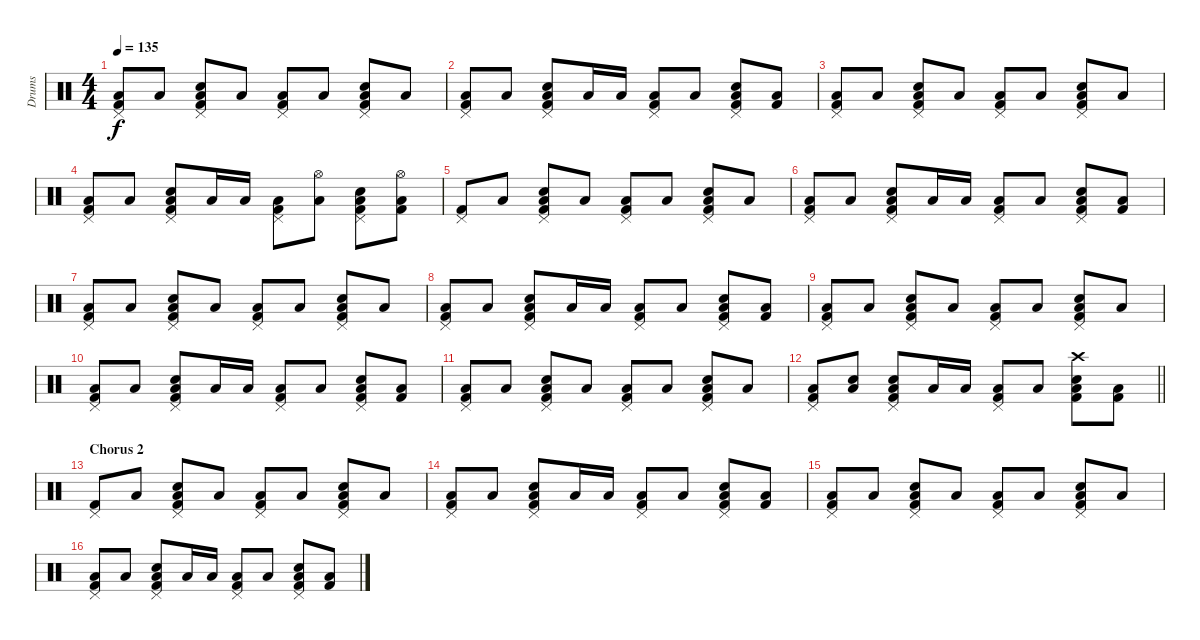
\track ("Drums" "Drums") {instrument percussion}
\staff {score}
\articulation defaults
\ts (4 4)
\tempo 135
\clef neutral
\ks c
("Pedal Hi-Hat (hit)" "Low Floor Tom (hit)" "Kick (hit) 2").8{dy f} "Low Floor Tom (hit)".8 ("Pedal Hi-Hat (hit)" "Low Floor Tom (hit)" "Electric Snare (hit)" "Kick (hit) 2").8 "Low Floor Tom (hit)".8 ("Pedal Hi-Hat (hit)" "Low Floor Tom (hit)" "Kick (hit) 2").8 "Low Floor Tom (hit)".8 ("Pedal Hi-Hat (hit)" "Low Floor Tom (hit)" "Electric Snare (hit)" "Kick (hit) 2").8 "Low Floor Tom (hit)".8 |
("Pedal Hi-Hat (hit)" "Low Floor Tom (hit)" "Kick (hit) 2").8 "Low Floor Tom (hit)".8 ("Pedal Hi-Hat (hit)" "Low Floor Tom (hit)" "Electric Snare (hit)" "Kick (hit) 2").8 "Low Floor Tom (hit)".16 "Low Floor Tom (hit)".16 ("Pedal Hi-Hat (hit)" "Low Floor Tom (hit)" "Kick (hit) 2").8 "Low Floor Tom (hit)".8 ("Pedal Hi-Hat (hit)" "Low Floor Tom (hit)" "Electric Snare (hit)" "Kick (hit) 2").8 ("Low Floor Tom (hit)" "Kick (hit) 2").8 |
("Pedal Hi-Hat (hit)" "Low Floor Tom (hit)" "Kick (hit) 2").8 "Low Floor Tom (hit)".8 ("Pedal Hi-Hat (hit)" "Low Floor Tom (hit)" "Electric Snare (hit)" "Kick (hit) 2").8 "Low Floor Tom (hit)".8 ("Pedal Hi-Hat (hit)" "Low Floor Tom (hit)" "Kick (hit) 2").8 "Low Floor Tom (hit)".8 ("Pedal Hi-Hat (hit)" "Low Floor Tom (hit)" "Electric Snare (hit)" "Kick (hit) 2").8 "Low Floor Tom (hit)".8 |
("Pedal Hi-Hat (hit)" "Low Floor Tom (hit)" "Kick (hit) 2").8 "Low Floor Tom (hit)".8 ("Pedal Hi-Hat (hit)" "Low Floor Tom (hit)" "Electric Snare (hit)" "Kick (hit) 2").8 "Low Floor Tom (hit)".16 "Low Floor Tom (hit)".16 ("Pedal Hi-Hat (hit)" "Low Floor Tom (hit)" "Kick (hit) 2").8 ("Hi-Hat (open)" "Low Floor Tom (hit)").8 ("Pedal Hi-Hat (hit)" "Low Floor Tom (hit)" "Electric Snare (hit)" "Kick (hit) 2").8 ("Hi-Hat (open)" "Low Floor Tom (hit)" "Kick (hit) 2").8 |
("Pedal Hi-Hat (hit)" "Kick (hit) 2").8 "Low Floor Tom (hit)".8 ("Pedal Hi-Hat (hit)" "Low Floor Tom (hit)" "Electric Snare (hit)" "Kick (hit) 2").8 "Low Floor Tom (hit)".8 ("Pedal Hi-Hat (hit)" "Low Floor Tom (hit)" "Kick (hit) 2").8 "Low Floor Tom (hit)".8 ("Pedal Hi-Hat (hit)" "Low Floor Tom (hit)" "Electric Snare (hit)" "Kick (hit) 2").8 "Low Floor Tom (hit)".8 |
("Pedal Hi-Hat (hit)" "Low Floor Tom (hit)" "Kick (hit) 2").8 "Low Floor Tom (hit)".8 ("Pedal Hi-Hat (hit)" "Low Floor Tom (hit)" "Electric Snare (hit)" "Kick (hit) 2").8 "Low Floor Tom (hit)".16 "Low Floor Tom (hit)".16 ("Pedal Hi-Hat (hit)" "Low Floor Tom (hit)" "Kick (hit) 2").8 "Low Floor Tom (hit)".8 ("Pedal Hi-Hat (hit)" "Low Floor Tom (hit)" "Electric Snare (hit)" "Kick (hit) 2").8 ("Low Floor Tom (hit)" "Kick (hit) 2").8 |
("Pedal Hi-Hat (hit)" "Low Floor Tom (hit)" "Kick (hit) 2").8 "Low Floor Tom (hit)".8 ("Pedal Hi-Hat (hit)" "Low Floor Tom (hit)" "Electric Snare (hit)" "Kick (hit) 2").8 "Low Floor Tom (hit)".8 ("Pedal Hi-Hat (hit)" "Low Floor Tom (hit)" "Kick (hit) 2").8 "Low Floor Tom (hit)".8 ("Pedal Hi-Hat (hit)" "Low Floor Tom (hit)" "Electric Snare (hit)" "Kick (hit) 2").8 "Low Floor Tom (hit)".8 |
("Pedal Hi-Hat (hit)" "Low Floor Tom (hit)" "Kick (hit) 2").8 "Low Floor Tom (hit)".8 ("Pedal Hi-Hat (hit)" "Low Floor Tom (hit)" "Electric Snare (hit)" "Kick (hit) 2").8 "Low Floor Tom (hit)".16 "Low Floor Tom (hit)".16 ("Pedal Hi-Hat (hit)" "Low Floor Tom (hit)" "Kick (hit) 2").8 "Low Floor Tom (hit)".8 ("Pedal Hi-Hat (hit)" "Low Floor Tom (hit)" "Electric Snare (hit)" "Kick (hit) 2").8 ("Low Floor Tom (hit)" "Kick (hit) 2").8 |
("Pedal Hi-Hat (hit)" "Low Floor Tom (hit)" "Kick (hit) 2").8 "Low Floor Tom (hit)".8 ("Pedal Hi-Hat (hit)" "Low Floor Tom (hit)" "Electric Snare (hit)" "Kick (hit) 2").8 "Low Floor Tom (hit)".8 ("Pedal Hi-Hat (hit)" "Low Floor Tom (hit)" "Kick (hit) 2").8 "Low Floor Tom (hit)".8 ("Pedal Hi-Hat (hit)" "Low Floor Tom (hit)" "Electric Snare (hit)" "Kick (hit) 2").8 "Low Floor Tom (hit)".8 |
("Pedal Hi-Hat (hit)" "Low Floor Tom (hit)" "Kick (hit) 2").8 "Low Floor Tom (hit)".8 ("Pedal Hi-Hat (hit)" "Low Floor Tom (hit)" "Electric Snare (hit)" "Kick (hit) 2").8 "Low Floor Tom (hit)".16 "Low Floor Tom (hit)".16 ("Pedal Hi-Hat (hit)" "Low Floor Tom (hit)" "Kick (hit) 2").8 "Low Floor Tom (hit)".8 ("Pedal Hi-Hat (hit)" "Low Floor Tom (hit)" "Electric Snare (hit)" "Kick (hit) 2").8 ("Low Floor Tom (hit)" "Kick (hit) 2").8 |
("Pedal Hi-Hat (hit)" "Low Floor Tom (hit)" "Kick (hit) 2").8 "Low Floor Tom (hit)".8 ("Pedal Hi-Hat (hit)" "Low Floor Tom (hit)" "Electric Snare (hit)" "Kick (hit) 2").8 "Low Floor Tom (hit)".8 ("Pedal Hi-Hat (hit)" "Low Floor Tom (hit)" "Kick (hit) 2").8 "Low Floor Tom (hit)".8 ("Pedal Hi-Hat (hit)" "Low Floor Tom (hit)" "Electric Snare (hit)" "Kick (hit) 2").8 "Low Floor Tom (hit)".8 |
\barLineRight lightlight
("Pedal Hi-Hat (hit)" "Low Floor Tom (hit)" "Kick (hit) 2").8 ("Low Floor Tom (hit)" "Electric Snare (hit)").8 ("Pedal Hi-Hat (hit)" "Low Floor Tom (hit)" "Electric Snare (hit)" "Kick (hit) 2").8 "Low Floor Tom (hit)".16 "Low Floor Tom (hit)".16 ("Pedal Hi-Hat (hit)" "Low Floor Tom (hit)" "Kick (hit) 2").8 "Low Floor Tom (hit)".8 ("Crash high (hit)" "Low Floor Tom (hit)" "Electric Snare (hit)" "Kick (hit) 2").8 ("Low Floor Tom (hit)" "Kick (hit) 2").8 |
\section ("" "Chorus 2")
("Pedal Hi-Hat (hit)" "Kick (hit) 2").8 "Low Floor Tom (hit)".8 ("Pedal Hi-Hat (hit)" "Low Floor Tom (hit)" "Electric Snare (hit)" "Kick (hit) 2").8 "Low Floor Tom (hit)".8 ("Pedal Hi-Hat (hit)" "Low Floor Tom (hit)" "Kick (hit) 2").8 "Low Floor Tom (hit)".8 ("Pedal Hi-Hat (hit)" "Low Floor Tom (hit)" "Electric Snare (hit)" "Kick (hit) 2").8 "Low Floor Tom (hit)".8 |
("Pedal Hi-Hat (hit)" "Low Floor Tom (hit)" "Kick (hit) 2").8 "Low Floor Tom (hit)".8 ("Pedal Hi-Hat (hit)" "Low Floor Tom (hit)" "Electric Snare (hit)" "Kick (hit) 2").8 "Low Floor Tom (hit)".16 "Low Floor Tom (hit)".16 ("Pedal Hi-Hat (hit)" "Low Floor Tom (hit)" "Kick (hit) 2").8 "Low Floor Tom (hit)".8 ("Pedal Hi-Hat (hit)" "Low Floor Tom (hit)" "Electric Snare (hit)" "Kick (hit) 2").8 ("Low Floor Tom (hit)" "Kick (hit) 2").8 |
("Pedal Hi-Hat (hit)" "Low Floor Tom (hit)" "Kick (hit) 2").8 "Low Floor Tom (hit)".8 ("Pedal Hi-Hat (hit)" "Low Floor Tom (hit)" "Electric Snare (hit)" "Kick (hit) 2").8 "Low Floor Tom (hit)".8 ("Pedal Hi-Hat (hit)" "Low Floor Tom (hit)" "Kick (hit) 2").8 "Low Floor Tom (hit)".8 ("Pedal Hi-Hat (hit)" "Low Floor Tom (hit)" "Electric Snare (hit)" "Kick (hit) 2").8 "Low Floor Tom (hit)".8 |
("Pedal Hi-Hat (hit)" "Low Floor Tom (hit)" "Kick (hit) 2").8 "Low Floor Tom (hit)".8 ("Pedal Hi-Hat (hit)" "Low Floor Tom (hit)" "Electric Snare (hit)" "Kick (hit) 2").8 "Low Floor Tom (hit)".16 "Low Floor Tom (hit)".16 ("Pedal Hi-Hat (hit)" "Low Floor Tom (hit)" "Kick (hit) 2").8 "Low Floor Tom (hit)".8 ("Pedal Hi-Hat (hit)" "Low Floor Tom (hit)" "Electric Snare (hit)" "Kick (hit) 2").8 ("Low Floor Tom (hit)" "Kick (hit) 2").8
